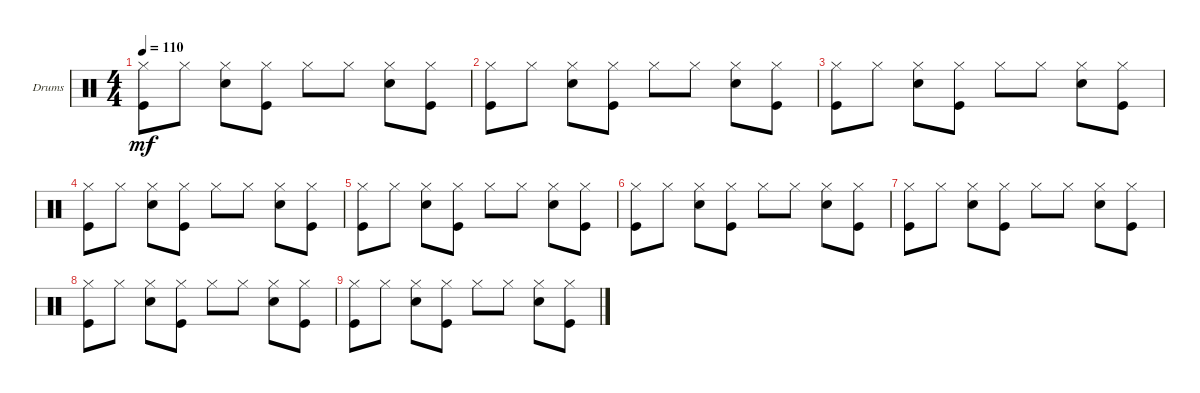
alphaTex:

\defaultSystemsLayout 4
\bracketExtendMode groupsimilarinstruments
\firstSystemTrackNameOrientation horizontal
\otherSystemsTrackNameOrientation horizontal
\track ("Drumkit" "Drums") {instrument percussion}
\staff {score}
\articulation defaults
\ts (4 4)
\tempo 110
\clef neutral
\ks c
("Kick (hit)" "Hi-Hat (closed)").8{dy mf} "Hi-Hat (closed)".8 ("Snare (hit) 2" "Hi-Hat (closed)").8 ("Kick (hit)" "Hi-Hat (closed)").8 "Hi-Hat (closed)".8 "Hi-Hat (closed)".8 ("Snare (hit) 2" "Hi-Hat (closed)").8 ("Hi-Hat (closed)" "Kick (hit)").8 |
("Kick (hit)" "Hi-Hat (closed)").8 "Hi-Hat (closed)".8 ("Snare (hit) 2" "Hi-Hat (closed)").8 ("Kick (hit)" "Hi-Hat (closed)").8 "Hi-Hat (closed)".8 "Hi-Hat (closed)".8 ("Snare (hit) 2" "Hi-Hat (closed)").8 ("Hi-Hat (closed)" "Kick (hit)").8 |
("Kick (hit)" "Hi-Hat (closed)").8 "Hi-Hat (closed)".8 ("Snare (hit) 2" "Hi-Hat (closed)").8 ("Kick (hit)" "Hi-Hat (closed)").8 "Hi-Hat (closed)".8 "Hi-Hat (closed)".8 ("Snare (hit) 2" "Hi-Hat (closed)").8 ("Hi-Hat (closed)" "Kick (hit)").8 |
("Kick (hit)" "Hi-Hat (closed)").8 "Hi-Hat (closed)".8 ("Snare (hit) 2" "Hi-Hat (closed)").8 ("Kick (hit)" "Hi-Hat (closed)").8 "Hi-Hat (closed)".8 "Hi-Hat (closed)".8 ("Snare (hit) 2" "Hi-Hat (closed)").8 ("Hi-Hat (closed)" "Kick (hit)").8 |
("Kick (hit)" "Hi-Hat (closed)").8 "Hi-Hat (closed)".8 ("Snare (hit) 2" "Hi-Hat (closed)").8 ("Kick (hit)" "Hi-Hat (closed)").8 "Hi-Hat (closed)".8 "Hi-Hat (closed)".8 ("Snare (hit) 2" "Hi-Hat (closed)").8 ("Hi-Hat (closed)" "Kick (hit)").8 |
("Kick (hit)" "Hi-Hat (closed)").8 "Hi-Hat (closed)".8 ("Snare (hit) 2" "Hi-Hat (closed)").8 ("Kick (hit)" "Hi-Hat (closed)").8 "Hi-Hat (closed)".8 "Hi-Hat (closed)".8 ("Snare (hit) 2" "Hi-Hat (closed)").8 ("Hi-Hat (closed)" "Kick (hit)").8 |
("Kick (hit)" "Hi-Hat (closed)").8 "Hi-Hat (closed)".8 ("Snare (hit) 2" "Hi-Hat (closed)").8 ("Kick (hit)" "Hi-Hat (closed)").8 "Hi-Hat (closed)".8 "Hi-Hat (closed)".8 ("Snare (hit) 2" "Hi-Hat (closed)").8 ("Hi-Hat (closed)" "Kick (hit)").8 |
("Kick (hit)" "Hi-Hat (closed)").8 "Hi-Hat (closed)".8 ("Snare (hit) 2" "Hi-Hat (closed)").8 ("Kick (hit)" "Hi-Hat (closed)").8 "Hi-Hat (closed)".8 "Hi-Hat (closed)".8 ("Snare (hit) 2" "Hi-Hat (closed)").8 ("Hi-Hat (closed)" "Kick (hit)").8 |
("Kick (hit)" "Hi-Hat (closed)").8 "Hi-Hat (closed)".8 ("Snare (hit) 2" "Hi-Hat (closed)").8 ("Kick (hit)" "Hi-Hat (closed)").8 "Hi-Hat (closed)".8 "Hi-Hat (closed)".8 ("Snare (hit) 2" "Hi-Hat (closed)").8 ("Hi-Hat (closed)" "Kick (hit)").8
